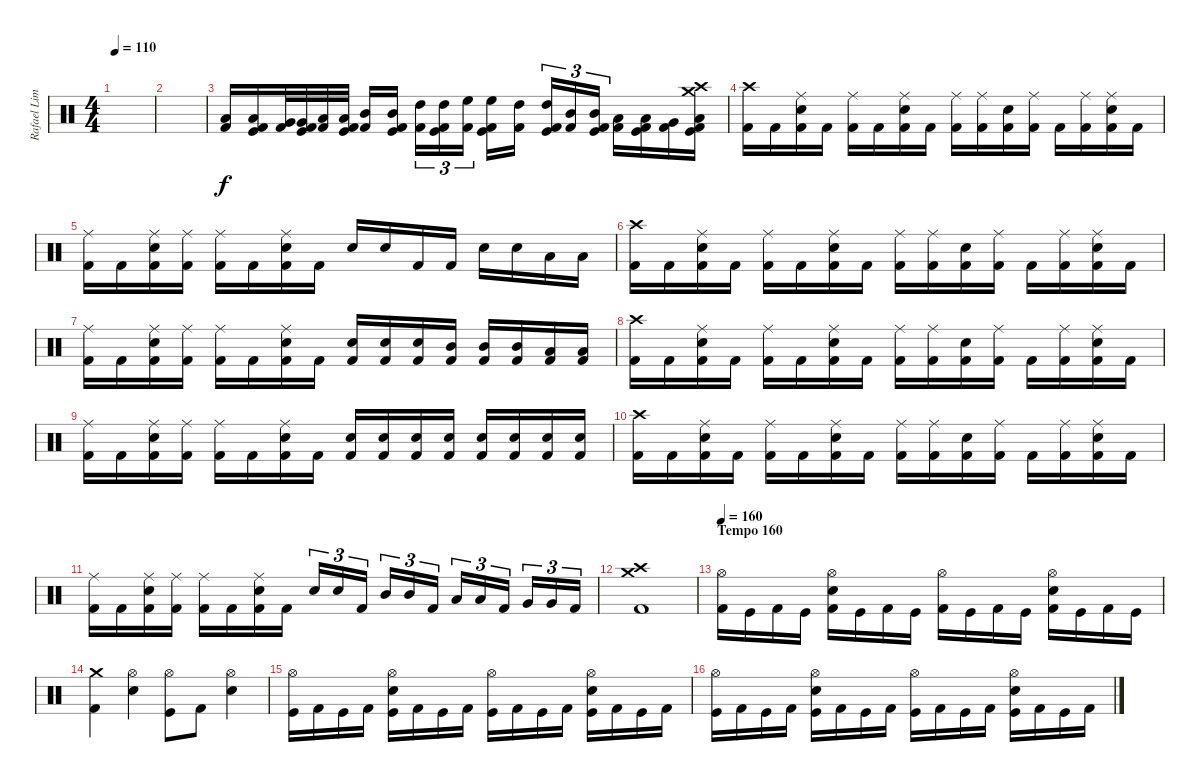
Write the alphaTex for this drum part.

\track ("Rafael Lima" "Rafael Lim") {instrument percussion}
\staff {score}
\articulation defaults
\ts (4 4)
\tempo 110
\clef neutral
\ks c
|
|
("Low Floor Tom (hit)" "Kick (hit) 2").16 ("Low Floor Tom (hit)" "Kick (hit)" "Kick (hit) 2").16 ("Very Low Tom (hit)" "Kick (hit) 2").32 ("Very Low Tom (hit)" "Kick (hit)" "Kick (hit) 2").32 ("Low Tom (hit)" "Kick (hit) 2").32 ("Low Tom (hit)" "Kick (hit)" "Kick (hit) 2").32 ("Mid Tom (hit)" "Kick (hit) 2").16 ("Mid Tom (hit)" "Kick (hit)" "Kick (hit) 2").16 ("High Tom (hit)" "Kick (hit) 2").16{tu (3 2)} ("High Tom (hit)" "Kick (hit)" "Kick (hit) 2").16{tu (3 2)} ("High Floor Tom (hit)" "Kick (hit) 2").16{tu (3 2)} ("High Floor Tom (hit)" "Kick (hit)" "Kick (hit) 2").16 ("High Tom (hit)" "Kick (hit) 2").16 ("High Tom (hit)" "Kick (hit)" "Kick (hit) 2").16{tu (3 2)} ("Mid Tom (hit)" "Kick (hit) 2").16{tu (3 2)} ("Mid Tom (hit)" "Kick (hit)" "Kick (hit) 2").16{tu (3 2)} ("Low Tom (hit)" "Kick (hit) 2").16 ("Low Tom (hit)" "Kick (hit)" "Kick (hit) 2").16 ("Very Low Tom (hit)" "Kick (hit) 2").16 ("Crash medium (hit)" "Crash high (hit)" "Low Floor Tom (hit)" "Kick (hit)" "Kick (hit) 2").16 |
("Crash high (hit)" "Kick (hit) 2").16 "Kick (hit) 2".16 ("Ride (middle)" "Electric Snare (hit)" "Kick (hit) 2").16 "Kick (hit) 2".16 ("Ride (middle)" "Kick (hit) 2").16 "Kick (hit) 2".16 ("Ride (middle)" "Electric Snare (hit)" "Kick (hit) 2").16 "Kick (hit) 2".16 ("Ride (middle)" "Kick (hit) 2").16 ("Ride (middle)" "Kick (hit) 2").16 ("Electric Snare (hit)" "Kick (hit) 2").16 ("Ride (middle)" "Kick (hit) 2").16 "Kick (hit) 2".16 ("Ride (middle)" "Kick (hit) 2").16 ("Ride (middle)" "Electric Snare (hit)" "Kick (hit) 2").16 "Kick (hit) 2".16 |
("Ride (middle)" "Kick (hit) 2").16 "Kick (hit) 2".16 ("Ride (middle)" "Electric Snare (hit)" "Kick (hit) 2").16 ("Ride (middle)" "Kick (hit) 2").16 ("Ride (middle)" "Kick (hit) 2").16 "Kick (hit) 2".16 ("Ride (middle)" "Electric Snare (hit)" "Kick (hit) 2").16 "Kick (hit) 2".16 "Electric Snare (hit)".16 "Electric Snare (hit)".16 "Kick (hit) 2".16 "Kick (hit) 2".16 "Electric Snare (hit)".16 "Electric Snare (hit)".16 "Low Tom (hit)".16 "Low Tom (hit)".16 |
("Crash high (hit)" "Kick (hit) 2").16 "Kick (hit) 2".16 ("Ride (middle)" "Electric Snare (hit)" "Kick (hit) 2").16 "Kick (hit) 2".16 ("Ride (middle)" "Kick (hit) 2").16 "Kick (hit) 2".16 ("Ride (middle)" "Electric Snare (hit)" "Kick (hit) 2").16 "Kick (hit) 2".16 ("Ride (middle)" "Kick (hit) 2").16 ("Ride (middle)" "Kick (hit) 2").16 ("Electric Snare (hit)" "Kick (hit) 2").16 ("Ride (middle)" "Kick (hit) 2").16 "Kick (hit) 2".16 ("Ride (middle)" "Kick (hit) 2").16 ("Ride (middle)" "Electric Snare (hit)" "Kick (hit) 2").16 "Kick (hit) 2".16 |
("Ride (middle)" "Kick (hit) 2").16 "Kick (hit) 2".16 ("Ride (middle)" "Electric Snare (hit)" "Kick (hit) 2").16 ("Ride (middle)" "Kick (hit) 2").16 ("Ride (middle)" "Kick (hit) 2").16 "Kick (hit) 2".16 ("Ride (middle)" "Electric Snare (hit)" "Kick (hit) 2").16 "Kick (hit) 2".16 ("Electric Snare (hit)" "Kick (hit) 2").16 ("Electric Snare (hit)" "Kick (hit) 2").16 ("Electric Snare (hit)" "Kick (hit) 2").16 ("Mid Tom (hit)" "Kick (hit) 2").16 ("Mid Tom (hit)" "Kick (hit) 2").16 ("Mid Tom (hit)" "Kick (hit) 2").16 ("Low Tom (hit)" "Kick (hit) 2").16 ("Low Tom (hit)" "Kick (hit) 2").16 |
("Crash high (hit)" "Kick (hit) 2").16 "Kick (hit) 2".16 ("Ride (middle)" "Electric Snare (hit)" "Kick (hit) 2").16 "Kick (hit) 2".16 ("Ride (middle)" "Kick (hit) 2").16 "Kick (hit) 2".16 ("Ride (middle)" "Electric Snare (hit)" "Kick (hit) 2").16 "Kick (hit) 2".16 ("Ride (middle)" "Kick (hit) 2").16 ("Ride (middle)" "Kick (hit) 2").16 ("Electric Snare (hit)" "Kick (hit) 2").16 ("Ride (middle)" "Kick (hit) 2").16 "Kick (hit) 2".16 ("Ride (middle)" "Kick (hit) 2").16 ("Ride (middle)" "Electric Snare (hit)" "Kick (hit) 2").16 "Kick (hit) 2".16 |
("Ride (middle)" "Kick (hit) 2").16 "Kick (hit) 2".16 ("Ride (middle)" "Electric Snare (hit)" "Kick (hit) 2").16 ("Ride (middle)" "Kick (hit) 2").16 ("Ride (middle)" "Kick (hit) 2").16 "Kick (hit) 2".16 ("Ride (middle)" "Electric Snare (hit)" "Kick (hit) 2").16 "Kick (hit) 2".16 ("Electric Snare (hit)" "Kick (hit) 2").16 ("Electric Snare (hit)" "Kick (hit) 2").16 ("Electric Snare (hit)" "Kick (hit) 2").16 ("Electric Snare (hit)" "Kick (hit) 2").16 ("Electric Snare (hit)" "Kick (hit) 2").16 ("Electric Snare (hit)" "Kick (hit) 2").16 ("Electric Snare (hit)" "Kick (hit) 2").16 ("Electric Snare (hit)" "Kick (hit) 2").16 |
("Crash high (hit)" "Kick (hit) 2").16 "Kick (hit) 2".16 ("Ride (middle)" "Electric Snare (hit)" "Kick (hit) 2").16 "Kick (hit) 2".16 ("Ride (middle)" "Kick (hit) 2").16 "Kick (hit) 2".16 ("Ride (middle)" "Electric Snare (hit)" "Kick (hit) 2").16 "Kick (hit) 2".16 ("Ride (middle)" "Kick (hit) 2").16 ("Ride (middle)" "Kick (hit) 2").16 ("Electric Snare (hit)" "Kick (hit) 2").16 ("Ride (middle)" "Kick (hit) 2").16 "Kick (hit) 2".16 ("Ride (middle)" "Kick (hit) 2").16 ("Ride (middle)" "Electric Snare (hit)" "Kick (hit) 2").16 "Kick (hit) 2".16 |
("Ride (middle)" "Kick (hit) 2").16 "Kick (hit) 2".16 ("Ride (middle)" "Electric Snare (hit)" "Kick (hit) 2").16 ("Ride (middle)" "Kick (hit) 2").16 ("Ride (middle)" "Kick (hit) 2").16 "Kick (hit) 2".16 ("Ride (middle)" "Electric Snare (hit)" "Kick (hit) 2").16 "Kick (hit) 2".16 "Electric Snare (hit)".16{tu (3 2)} "Electric Snare (hit)".16{tu (3 2)} "Kick (hit) 2".16{tu (3 2)} "Mid Tom (hit)".16{tu (3 2)} "Mid Tom (hit)".16{tu (3 2)} "Kick (hit) 2".16{tu (3 2)} "Low Tom (hit)".16{tu (3 2)} "Low Tom (hit)".16{tu (3 2)} "Kick (hit) 2".16{tu (3 2)} "Very Low Tom (hit)".16{tu (3 2)} "Very Low Tom (hit)".16{tu (3 2)} "Kick (hit) 2".16{tu (3 2)} |
("Crash medium (hit)" "Crash high (hit)" "Kick (hit) 2").1 |
\section ("" "Tempo 160")
\tempo 160
("Hi-Hat (open)" "Kick (hit) 2").16 "Kick (hit)".16 "Kick (hit) 2".16 "Kick (hit)".16 ("Hi-Hat (open)" "Electric Snare (hit)" "Kick (hit) 2").16 "Kick (hit)".16 "Kick (hit) 2".16 "Kick (hit)".16 ("Hi-Hat (open)" "Kick (hit) 2").16 "Kick (hit)".16 "Kick (hit) 2".16 "Kick (hit)".16 ("Hi-Hat (open)" "Electric Snare (hit)" "Kick (hit) 2").16 "Kick (hit)".16 "Kick (hit) 2".16 "Kick (hit)".16 |
("Crash medium (hit)" "Kick (hit) 2").4 ("Hi-Hat (open)" "Electric Snare (hit)").4 ("Hi-Hat (open)" "Kick (hit)").8 "Kick (hit) 2".8 ("Hi-Hat (open)" "Electric Snare (hit)").4 |
("Hi-Hat (open)" "Kick (hit)").16 "Kick (hit) 2".16 "Kick (hit)".16 "Kick (hit) 2".16 ("Hi-Hat (open)" "Electric Snare (hit)" "Kick (hit)").16 "Kick (hit) 2".16 "Kick (hit)".16 "Kick (hit) 2".16 ("Hi-Hat (open)" "Kick (hit)").16 "Kick (hit) 2".16 "Kick (hit)".16 "Kick (hit) 2".16 ("Hi-Hat (open)" "Electric Snare (hit)" "Kick (hit)").16 "Kick (hit) 2".16 "Kick (hit)".16 "Kick (hit) 2".16 |
("Hi-Hat (open)" "Kick (hit)").16 "Kick (hit) 2".16 "Kick (hit)".16 "Kick (hit) 2".16 ("Hi-Hat (open)" "Electric Snare (hit)" "Kick (hit)").16 "Kick (hit) 2".16 "Kick (hit)".16 "Kick (hit) 2".16 ("Hi-Hat (open)" "Kick (hit)").16 "Kick (hit) 2".16 "Kick (hit)".16 "Kick (hit) 2".16 ("Hi-Hat (open)" "Electric Snare (hit)" "Kick (hit)").16 "Kick (hit) 2".16 "Kick (hit)".16 "Kick (hit) 2".16
